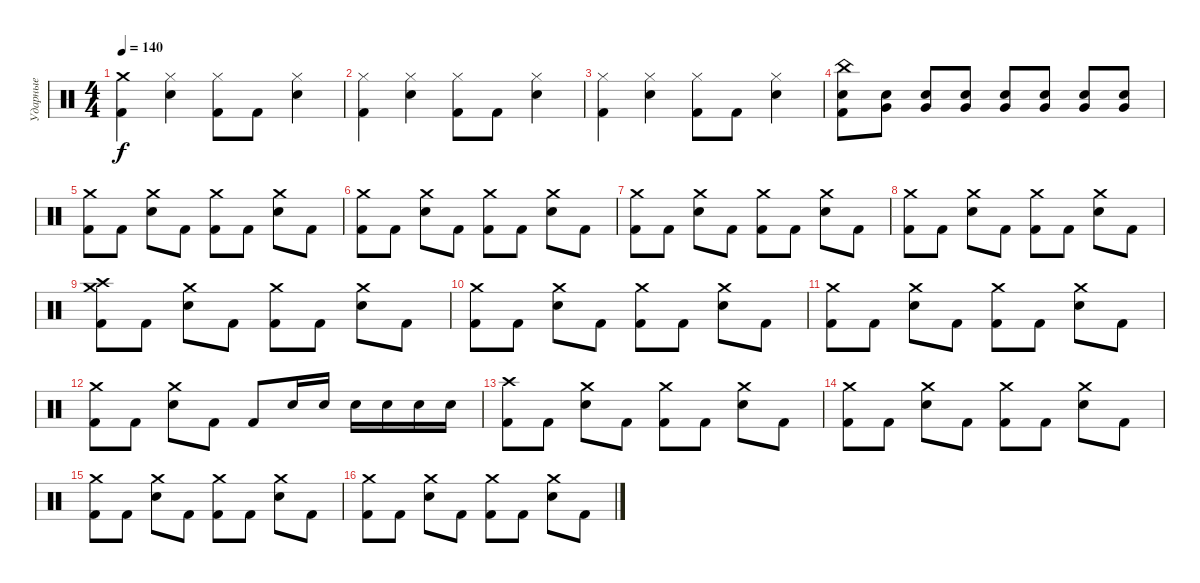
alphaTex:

\track ("Ударные" "Ударные") {instrument percussion}
\staff {score}
\articulation defaults
\ts (4 4)
\tempo 140
\clef neutral
\ks c
("Crash medium (hit)" "Kick (hit) 2").4{dy f} ("Hi-Hat (closed)" "Electric Snare (hit)").4 ("Hi-Hat (closed)" "Kick (hit) 2").8 "Kick (hit) 2".8 ("Hi-Hat (closed)" "Electric Snare (hit)").4 |
("Hi-Hat (closed)" "Kick (hit) 2").4 ("Hi-Hat (closed)" "Electric Snare (hit)").4 ("Hi-Hat (closed)" "Kick (hit) 2").8 "Kick (hit) 2".8 ("Hi-Hat (closed)" "Electric Snare (hit)").4 |
("Hi-Hat (closed)" "Kick (hit) 2").4 ("Hi-Hat (closed)" "Electric Snare (hit)").4 ("Hi-Hat (closed)" "Kick (hit) 2").8 "Kick (hit) 2".8 ("Hi-Hat (closed)" "Electric Snare (hit)").4 |
("China (hit)" "Electric Snare (hit)" "Kick (hit) 2").8 ("Electric Snare (hit)" "Very Low Tom (hit)").8 ("Electric Snare (hit)" "Very Low Tom (hit)").8 ("Electric Snare (hit)" "Very Low Tom (hit)").8 ("Electric Snare (hit)" "Very Low Tom (hit)").8 ("Electric Snare (hit)" "Very Low Tom (hit)").8 ("Electric Snare (hit)" "Very Low Tom (hit)").8 ("Electric Snare (hit)" "Very Low Tom (hit)").8 |
("Crash medium (hit)" "Kick (hit) 2").8 "Kick (hit) 2".8 ("Electric Snare (hit)" "Crash medium (hit)").8 "Kick (hit) 2".8 ("Kick (hit) 2" "Crash medium (hit)").8 "Kick (hit) 2".8 ("Electric Snare (hit)" "Crash medium (hit)").8 "Kick (hit) 2".8 |
("Crash medium (hit)" "Kick (hit) 2").8 "Kick (hit) 2".8 ("Electric Snare (hit)" "Crash medium (hit)").8 "Kick (hit) 2".8 ("Kick (hit) 2" "Crash medium (hit)").8 "Kick (hit) 2".8 ("Electric Snare (hit)" "Crash medium (hit)").8 "Kick (hit) 2".8 |
("Crash medium (hit)" "Kick (hit) 2").8 "Kick (hit) 2".8 ("Electric Snare (hit)" "Crash medium (hit)").8 "Kick (hit) 2".8 ("Kick (hit) 2" "Crash medium (hit)").8 "Kick (hit) 2".8 ("Electric Snare (hit)" "Crash medium (hit)").8 "Kick (hit) 2".8 |
("Crash medium (hit)" "Kick (hit) 2").8 "Kick (hit) 2".8 ("Electric Snare (hit)" "Crash medium (hit)").8 "Kick (hit) 2".8 ("Kick (hit) 2" "Crash medium (hit)").8 "Kick (hit) 2".8 ("Electric Snare (hit)" "Crash medium (hit)").8 "Kick (hit) 2".8 |
("Crash medium (hit)" "Crash high (hit)" "Kick (hit) 2").8 "Kick (hit) 2".8 ("Electric Snare (hit)" "Crash medium (hit)").8 "Kick (hit) 2".8 ("Kick (hit) 2" "Crash medium (hit)").8 "Kick (hit) 2".8 ("Electric Snare (hit)" "Crash medium (hit)").8 "Kick (hit) 2".8 |
("Crash medium (hit)" "Kick (hit) 2").8 "Kick (hit) 2".8 ("Electric Snare (hit)" "Crash medium (hit)").8 "Kick (hit) 2".8 ("Kick (hit) 2" "Crash medium (hit)").8 "Kick (hit) 2".8 ("Electric Snare (hit)" "Crash medium (hit)").8 "Kick (hit) 2".8 |
("Crash medium (hit)" "Kick (hit) 2").8 "Kick (hit) 2".8 ("Electric Snare (hit)" "Crash medium (hit)").8 "Kick (hit) 2".8 ("Kick (hit) 2" "Crash medium (hit)").8 "Kick (hit) 2".8 ("Electric Snare (hit)" "Crash medium (hit)").8 "Kick (hit) 2".8 |
("Crash medium (hit)" "Kick (hit) 2").8 "Kick (hit) 2".8 ("Electric Snare (hit)" "Crash medium (hit)").8 "Kick (hit) 2".8 "Kick (hit) 2".8 "Electric Snare (hit)".16 "Electric Snare (hit)".16 "Electric Snare (hit)".16 "Electric Snare (hit)".16 "Electric Snare (hit)".16 "Electric Snare (hit)".16 |
("Crash high (hit)" "Kick (hit) 2").8 "Kick (hit) 2".8 ("Electric Snare (hit)" "Crash medium (hit)").8 "Kick (hit) 2".8 ("Kick (hit) 2" "Crash medium (hit)").8 "Kick (hit) 2".8 ("Electric Snare (hit)" "Crash medium (hit)").8 "Kick (hit) 2".8 |
("Crash medium (hit)" "Kick (hit) 2").8 "Kick (hit) 2".8 ("Electric Snare (hit)" "Crash medium (hit)").8 "Kick (hit) 2".8 ("Kick (hit) 2" "Crash medium (hit)").8 "Kick (hit) 2".8 ("Electric Snare (hit)" "Crash medium (hit)").8 "Kick (hit) 2".8 |
("Crash medium (hit)" "Kick (hit) 2").8 "Kick (hit) 2".8 ("Electric Snare (hit)" "Crash medium (hit)").8 "Kick (hit) 2".8 ("Kick (hit) 2" "Crash medium (hit)").8 "Kick (hit) 2".8 ("Electric Snare (hit)" "Crash medium (hit)").8 "Kick (hit) 2".8 |
("Crash medium (hit)" "Kick (hit) 2").8 "Kick (hit) 2".8 ("Electric Snare (hit)" "Crash medium (hit)").8 "Kick (hit) 2".8 ("Crash medium (hit)" "Kick (hit) 2").8 "Kick (hit) 2".8 ("Electric Snare (hit)" "Crash medium (hit)").8 "Kick (hit) 2".8
